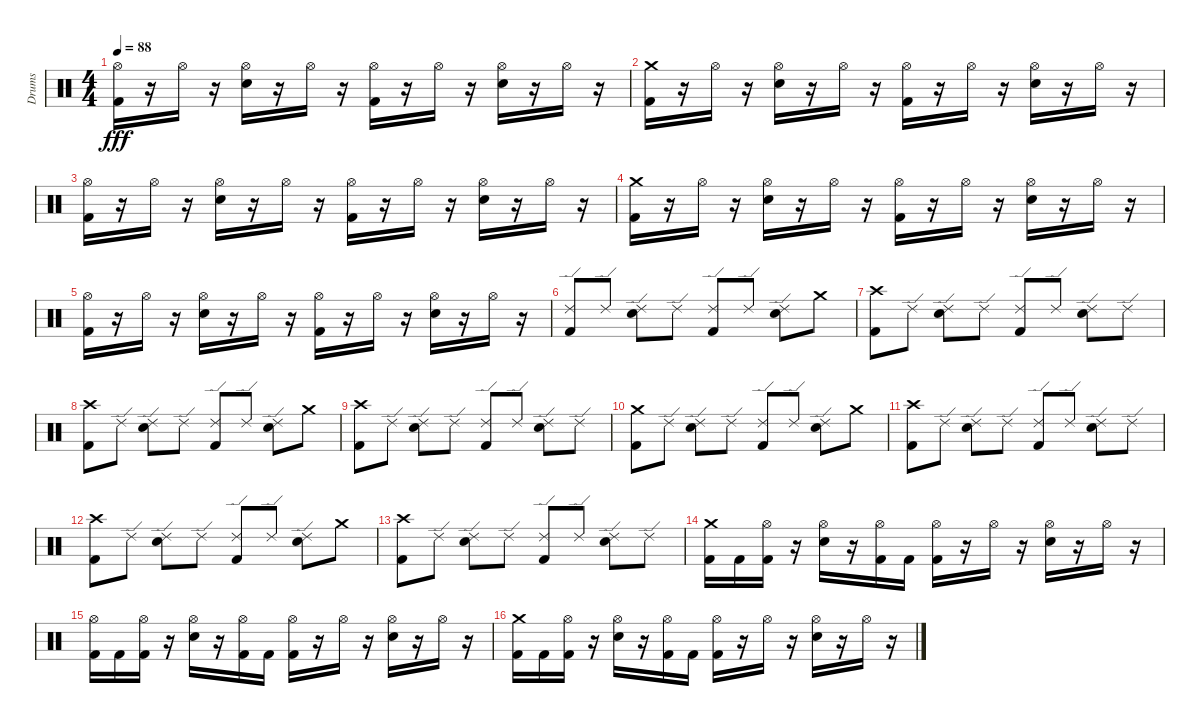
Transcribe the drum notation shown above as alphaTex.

\track ("Drums" "Drums") {instrument percussion}
\staff {score}
\articulation defaults
\ts (4 4)
\tempo 88
\clef neutral
\ks c
("Kick (hit) 2" "Hi-Hat (open)").16{dy fff} r.16 "Hi-Hat (open)".16 r.16 ("Electric Snare (hit)" "Hi-Hat (open)").16 r.16 "Hi-Hat (open)".16 r.16 ("Kick (hit) 2" "Hi-Hat (open)").16 r.16 "Hi-Hat (open)".16 r.16 ("Electric Snare (hit)" "Hi-Hat (open)").16 r.16 "Hi-Hat (open)".16 r.16 |
("Kick (hit) 2" "Crash medium (hit)").16 r.16 "Hi-Hat (open)".16 r.16 ("Electric Snare (hit)" "Hi-Hat (open)").16 r.16 "Hi-Hat (open)".16 r.16 ("Kick (hit) 2" "Hi-Hat (open)").16 r.16 "Hi-Hat (open)".16 r.16 ("Electric Snare (hit)" "Hi-Hat (open)").16 r.16 "Hi-Hat (open)".16 r.16 |
("Kick (hit) 2" "Hi-Hat (open)").16 r.16 "Hi-Hat (open)".16 r.16 ("Electric Snare (hit)" "Hi-Hat (open)").16 r.16 "Hi-Hat (open)".16 r.16 ("Kick (hit) 2" "Hi-Hat (open)").16 r.16 "Hi-Hat (open)".16 r.16 ("Electric Snare (hit)" "Hi-Hat (open)").16 r.16 "Hi-Hat (open)".16 r.16 |
("Kick (hit) 2" "Crash medium (hit)").16 r.16 "Hi-Hat (open)".16 r.16 ("Electric Snare (hit)" "Hi-Hat (open)").16 r.16 "Hi-Hat (open)".16 r.16 ("Kick (hit) 2" "Hi-Hat (open)").16 r.16 "Hi-Hat (open)".16 r.16 ("Electric Snare (hit)" "Hi-Hat (open)").16 r.16 "Hi-Hat (open)".16 r.16 |
("Kick (hit) 2" "Hi-Hat (open)").16 r.16 "Hi-Hat (open)".16 r.16 ("Electric Snare (hit)" "Hi-Hat (open)").16 r.16 "Hi-Hat (open)".16 r.16 ("Kick (hit) 2" "Hi-Hat (open)").16 r.16 "Hi-Hat (open)".16 r.16 ("Electric Snare (hit)" "Hi-Hat (open)").16 r.16 "Hi-Hat (open)".16 r.16 |
("Kick (hit) 2" "Ride (edge) 2").8 "Ride (edge) 2".8 ("Electric Snare (hit)" "Ride (edge) 2").8 "Ride (edge) 2".8 ("Kick (hit) 2" "Ride (edge) 2").8 "Ride (edge) 2".8 ("Electric Snare (hit)" "Ride (edge) 2").8 "Crash medium (hit)".8 |
("Kick (hit) 2" "Crash high (hit)").8 "Ride (edge) 2".8 ("Electric Snare (hit)" "Ride (edge) 2").8 "Ride (edge) 2".8 ("Kick (hit) 2" "Ride (edge) 2").8 "Ride (edge) 2".8 ("Electric Snare (hit)" "Ride (edge) 2").8 "Ride (edge) 2".8 |
("Kick (hit) 2" "Crash high (hit)").8 "Ride (edge) 2".8 ("Electric Snare (hit)" "Ride (edge) 2").8 "Ride (edge) 2".8 ("Kick (hit) 2" "Ride (edge) 2").8 "Ride (edge) 2".8 ("Electric Snare (hit)" "Ride (edge) 2").8 "Crash medium (hit)".8 |
("Kick (hit) 2" "Crash high (hit)").8 "Ride (edge) 2".8 ("Electric Snare (hit)" "Ride (edge) 2").8 "Ride (edge) 2".8 ("Kick (hit) 2" "Ride (edge) 2").8 "Ride (edge) 2".8 ("Electric Snare (hit)" "Ride (edge) 2").8 "Ride (edge) 2".8 |
("Kick (hit) 2" "Crash medium (hit)").8 "Ride (edge) 2".8 ("Electric Snare (hit)" "Ride (edge) 2").8 "Ride (edge) 2".8 ("Kick (hit) 2" "Ride (edge) 2").8 "Ride (edge) 2".8 ("Electric Snare (hit)" "Ride (edge) 2").8 "Crash medium (hit)".8 |
("Kick (hit) 2" "Crash high (hit)").8 "Ride (edge) 2".8 ("Electric Snare (hit)" "Ride (edge) 2").8 "Ride (edge) 2".8 ("Kick (hit) 2" "Ride (edge) 2").8 "Ride (edge) 2".8 ("Electric Snare (hit)" "Ride (edge) 2").8 "Ride (edge) 2".8 |
("Kick (hit) 2" "Crash high (hit)").8 "Ride (edge) 2".8 ("Electric Snare (hit)" "Ride (edge) 2").8 "Ride (edge) 2".8 ("Kick (hit) 2" "Ride (edge) 2").8 "Ride (edge) 2".8 ("Electric Snare (hit)" "Ride (edge) 2").8 "Crash medium (hit)".8 |
("Kick (hit) 2" "Crash high (hit)").8 "Ride (edge) 2".8 ("Electric Snare (hit)" "Ride (edge) 2").8 "Ride (edge) 2".8 ("Kick (hit) 2" "Ride (edge) 2").8 "Ride (edge) 2".8 ("Electric Snare (hit)" "Ride (edge) 2").8 "Ride (edge) 2".8 |
("Crash medium (hit)" "Kick (hit) 2").16 "Kick (hit) 2".16 ("Kick (hit) 2" "Hi-Hat (open)").16 r.16 ("Hi-Hat (open)" "Electric Snare (hit)").16 r.16 ("Kick (hit) 2" "Hi-Hat (open)").16 "Kick (hit) 2".16 ("Kick (hit) 2" "Hi-Hat (open)").16 r.16 "Hi-Hat (open)".16 r.16 ("Electric Snare (hit)" "Hi-Hat (open)").16 r.16 "Hi-Hat (open)".16 r.16 |
("Hi-Hat (open)" "Kick (hit) 2").16 "Kick (hit) 2".16 ("Kick (hit) 2" "Hi-Hat (open)").16 r.16 ("Hi-Hat (open)" "Electric Snare (hit)").16 r.16 ("Kick (hit) 2" "Hi-Hat (open)").16 "Kick (hit) 2".16 ("Kick (hit) 2" "Hi-Hat (open)").16 r.16 "Hi-Hat (open)".16 r.16 ("Electric Snare (hit)" "Hi-Hat (open)").16 r.16 "Hi-Hat (open)".16 r.16 |
("Crash medium (hit)" "Kick (hit) 2").16 "Kick (hit) 2".16 ("Kick (hit) 2" "Hi-Hat (open)").16 r.16 ("Hi-Hat (open)" "Electric Snare (hit)").16 r.16 ("Kick (hit) 2" "Hi-Hat (open)").16 "Kick (hit) 2".16 ("Kick (hit) 2" "Hi-Hat (open)").16 r.16 "Hi-Hat (open)".16 r.16 ("Electric Snare (hit)" "Hi-Hat (open)").16 r.16 "Hi-Hat (open)".16 r.16
